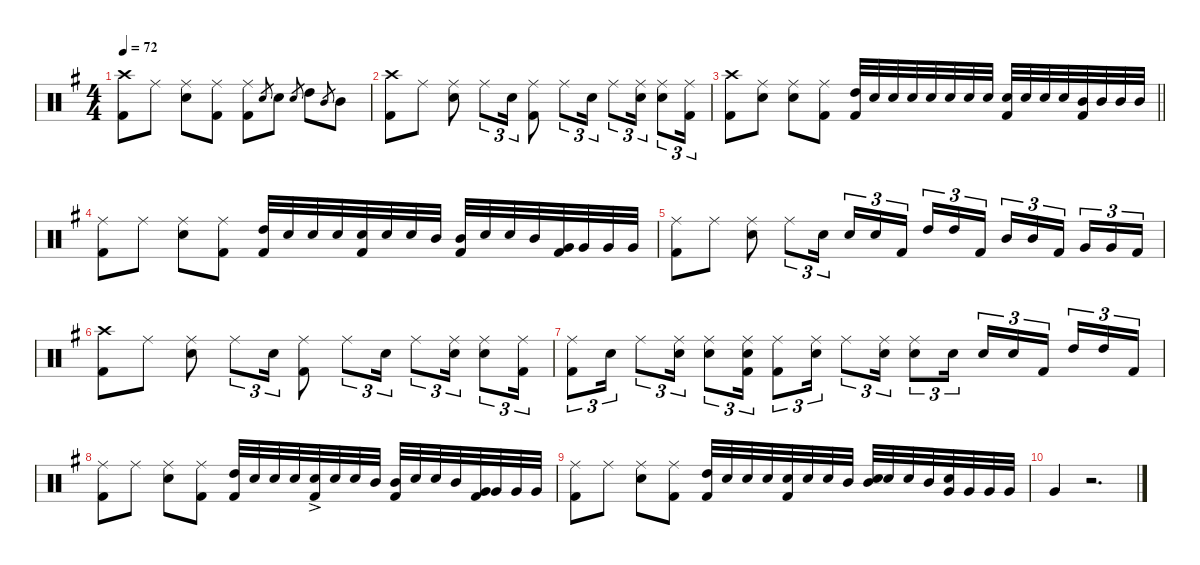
\defaultSystemsLayout 4
\hideDynamics
\bracketExtendMode nobrackets
\singleTrackTrackNamePolicy hidden
\multiTrackTrackNamePolicy hidden
\otherSystemsTrackNameOrientation horizontal
\track ("Drums" "drm.") {instrument percussion}
\staff {score}
\articulation defaults
\ts (4 4)
\tempo 72
\clef neutral
\ks g
("Crash high (hit)"{acc forcenatural} "Kick (hit) 2"{acc forcenatural}).8{dy f beam Down} "Ride (middle)"{acc forcenatural}.8{beam Down} ("Ride (middle)"{acc forcenatural} "Snare (hit) 2"{acc forcenatural}).8{beam Down} ("Ride (middle)"{acc forcenatural} "Kick (hit) 2"{acc forcenatural}).8{beam Down} ("Ride (middle)"{acc forcenatural} "Kick (hit) 2"{acc forcenatural}).8{beam Down} "Electric Snare (hit)"{acc forcenatural}.8{gr dy p beam Up} "Snare (hit) 2"{acc forcenatural}.8{dy f beam Down} "Electric Snare (hit)"{acc forcenatural}.8{gr dy p beam Up} "High Tom (hit)"{acc forcenatural}.8{dy f beam Down} "Mid Tom (hit)"{acc forcenatural}.8{gr dy p beam Up} "Mid Tom (hit)"{acc forcenatural}.8{dy f beam Down} |
("Crash high (hit)"{acc forcenatural} "Kick (hit) 2"{acc forcenatural}).8{beam Down} "Ride (middle)"{acc forcenatural}.8{beam Down} ("Ride (middle)"{acc forcenatural} "Snare (hit) 2"{acc forcenatural}).8{beam Down} "Ride (middle)"{acc forcenatural}.8{tu (3 2) beam Down} "Snare (hit) 2"{acc forcenatural}.16{tu (3 2) beam Down} ("Ride (middle)"{acc forcenatural} "Kick (hit) 2"{acc forcenatural}).8{beam Down} "Ride (middle)"{acc forcenatural}.8{tu (3 2) beam Down} "Snare (hit) 2"{acc forcenatural}.16{tu (3 2) beam Down} "Ride (middle)"{acc forcenatural}.8{tu (3 2) beam Down} ("Ride (middle)"{acc forcenatural} "Snare (hit) 2"{acc forcenatural}).16{tu (3 2) beam Down} ("Ride (middle)"{acc forcenatural} "Snare (hit) 2"{acc forcenatural}).8{tu (3 2) beam Down} ("Ride (middle)"{acc forcenatural} "Kick (hit) 2"{acc forcenatural}).16{tu (3 2) beam Down} |
\barLineRight lightlight
("Crash high (hit)"{acc forcenatural} "Kick (hit) 2"{acc forcenatural}).8{beam Down} ("Ride (middle)"{acc forcenatural} "Snare (hit) 2"{acc forcenatural}).8{beam Down} ("Ride (middle)"{acc forcenatural} "Snare (hit) 2"{acc forcenatural}).8{beam Down} ("Ride (middle)"{acc forcenatural} "Kick (hit) 2"{acc forcenatural}).8{beam Down} ("High Tom (hit)"{acc forcenatural} "Kick (hit) 2"{acc forcenatural}).32{beam Up} "Snare (hit) 2"{acc forcenatural}.32{beam Up} "Snare (hit) 2"{acc forcenatural}.32{beam Up} "Snare (hit) 2"{acc forcenatural}.32{beam Up} "Snare (hit) 2"{acc forcenatural}.32{beam Up} "Snare (hit) 2"{acc forcenatural}.32{beam Up} "Snare (hit) 2"{acc forcenatural}.32{beam Up} "Snare (hit) 2"{acc forcenatural}.32{beam Up} ("Snare (hit) 2"{acc forcenatural} "Kick (hit) 2"{acc forcenatural}).32{beam Up} "Snare (hit) 2"{acc forcenatural}.32{beam Up} "Snare (hit) 2"{acc forcenatural}.32{beam Up} "Snare (hit) 2"{acc forcenatural}.32{beam Up} ("Mid Tom (hit)"{acc forcenatural} "Kick (hit) 2"{acc forcenatural}).32{beam Up} "Mid Tom (hit)"{acc forcenatural}.32{beam Up} "Mid Tom (hit)"{acc forcenatural}.32{beam Up} "Mid Tom (hit)"{acc forcenatural}.32{beam Up} |
("Ride (middle)"{acc forcenatural} "Kick (hit) 2"{acc forcenatural}).8{beam Down} "Ride (middle)"{acc forcenatural}.8{beam Down} ("Ride (middle)"{acc forcenatural} "Snare (hit) 2"{acc forcenatural}).8{beam Down} ("Ride (middle)"{acc forcenatural} "Kick (hit) 2"{acc forcenatural}).8{beam Down} ("High Tom (hit)"{acc forcenatural} "Kick (hit) 2"{acc forcenatural}).32{beam Up} "Snare (hit) 2"{acc forcenatural}.32{beam Up} "Snare (hit) 2"{acc forcenatural}.32{beam Up} "Snare (hit) 2"{acc forcenatural}.32{beam Up} ("Snare (hit) 2"{acc forcenatural} "Kick (hit) 2"{acc forcenatural}).32{beam Up} "Snare (hit) 2"{acc forcenatural}.32{beam Up} "Snare (hit) 2"{acc forcenatural}.32{beam Up} "Mid Tom (hit)"{acc forcenatural}.32{beam Up} ("Mid Tom (hit)"{acc forcenatural} "Kick (hit) 2"{acc forcenatural}).32{beam Up} "Snare (hit) 2"{acc forcenatural}.32{beam Up} "Snare (hit) 2"{acc forcenatural}.32{beam Up} "Mid Tom (hit)"{acc forcenatural}.32{beam Up} ("Very Low Tom (hit)"{acc forcenatural} "Kick (hit) 2"{acc forcenatural}).32{beam Up} "Very Low Tom (hit)"{acc forcenatural}.32{beam Up} "Very Low Tom (hit)"{acc forcenatural}.32{beam Up} "Very Low Tom (hit)"{acc forcenatural}.32{beam Up} |
("Ride (middle)"{acc forcenatural} "Kick (hit) 2"{acc forcenatural}).8{beam Down} "Ride (middle)"{acc forcenatural}.8{beam Down} ("Ride (middle)"{acc forcenatural} "Snare (hit) 2"{acc forcenatural}).8{beam Down} "Ride (middle)"{acc forcenatural}.8{tu (3 2) beam Down} "Snare (hit) 2"{acc forcenatural}.16{tu (3 2) beam Down} "Snare (hit) 2"{acc forcenatural}.16{tu (3 2) beam Up} "Snare (hit) 2"{acc forcenatural}.16{tu (3 2) beam Up} "Kick (hit) 2"{acc forcenatural}.16{tu (3 2) beam Up} "High Tom (hit)"{acc forcenatural}.16{tu (3 2) beam Up} "High Tom (hit)"{acc forcenatural}.16{tu (3 2) beam Up} "Kick (hit) 2"{acc forcenatural}.16{tu (3 2) beam Up} "Mid Tom (hit)"{acc forcenatural}.16{tu (3 2) beam Up} "Mid Tom (hit)"{acc forcenatural}.16{tu (3 2) beam Up} "Kick (hit) 2"{acc forcenatural}.16{tu (3 2) beam Up} "Very Low Tom (hit)"{acc forcenatural}.16{tu (3 2) beam Up} "Very Low Tom (hit)"{acc forcenatural}.16{tu (3 2) beam Up} "Kick (hit) 2"{acc forcenatural}.16{tu (3 2) beam Up} |
("Crash high (hit)"{acc forcenatural} "Kick (hit) 2"{acc forcenatural}).8{beam Down} "Ride (middle)"{acc forcenatural}.8{beam Down} ("Ride (middle)"{acc forcenatural} "Snare (hit) 2"{acc forcenatural}).8{beam Down} "Ride (middle)"{acc forcenatural}.8{tu (3 2) beam Down} "Snare (hit) 2"{acc forcenatural}.16{tu (3 2) beam Down} ("Ride (middle)"{acc forcenatural} "Kick (hit) 2"{acc forcenatural}).8{beam Down} "Ride (middle)"{acc forcenatural}.8{tu (3 2) beam Down} "Snare (hit) 2"{acc forcenatural}.16{tu (3 2) beam Down} "Ride (middle)"{acc forcenatural}.8{tu (3 2) beam Down} ("Ride (middle)"{acc forcenatural} "Snare (hit) 2"{acc forcenatural}).16{tu (3 2) beam Down} ("Ride (middle)"{acc forcenatural} "Snare (hit) 2"{acc forcenatural}).8{tu (3 2) beam Down} ("Ride (middle)"{acc forcenatural} "Kick (hit) 2"{acc forcenatural}).16{tu (3 2) beam Down} |
("Ride (middle)"{acc forcenatural} "Kick (hit) 2"{acc forcenatural}).8{tu (3 2) beam Down} "Snare (hit) 2"{acc forcenatural}.16{tu (3 2) beam Down} "Ride (middle)"{acc forcenatural}.8{tu (3 2) beam Down} ("Ride (middle)"{acc forcenatural} "Snare (hit) 2"{acc forcenatural}).16{tu (3 2) beam Down} ("Ride (middle)"{acc forcenatural} "Snare (hit) 2"{acc forcenatural}).8{tu (3 2) beam Down} ("Ride (middle)"{acc forcenatural} "Snare (hit) 2"{acc forcenatural} "Kick (hit) 2"{acc forcenatural}).16{tu (3 2) beam Down} ("Ride (middle)"{acc forcenatural} "Kick (hit) 2"{acc forcenatural}).8{tu (3 2) beam Down} ("Ride (middle)"{acc forcenatural} "Snare (hit) 2"{acc forcenatural}).16{tu (3 2) beam Down} "Ride (middle)"{acc forcenatural}.8{tu (3 2) beam Down} ("Ride (middle)"{acc forcenatural} "Snare (hit) 2"{acc forcenatural}).16{tu (3 2) beam Down} ("Ride (middle)"{acc forcenatural} "Snare (hit) 2"{acc forcenatural}).8{tu (3 2) beam Down} "Snare (hit) 2"{acc forcenatural}.16{tu (3 2) beam Down} "Snare (hit) 2"{acc forcenatural}.16{tu (3 2) beam Up} "Snare (hit) 2"{acc forcenatural}.16{tu (3 2) beam Up} "Kick (hit) 2"{acc forcenatural}.16{tu (3 2) beam Up} "High Tom (hit)"{acc forcenatural}.16{tu (3 2) beam Up} "High Tom (hit)"{acc forcenatural}.16{tu (3 2) beam Up} "Kick (hit) 2"{acc forcenatural}.16{tu (3 2) beam Up} |
("Ride (middle)"{acc forcenatural} "Kick (hit) 2"{acc forcenatural}).8{beam Down} "Ride (middle)"{acc forcenatural}.8{beam Down} ("Ride (middle)"{acc forcenatural} "Snare (hit) 2"{acc forcenatural}).8{beam Down} ("Ride (middle)"{acc forcenatural} "Kick (hit) 2"{acc forcenatural}).8{beam Down} ("High Tom (hit)"{acc forcenatural} "Kick (hit) 2"{acc forcenatural}).32{beam Up} "Snare (hit) 2"{acc forcenatural}.32{beam Up} "Snare (hit) 2"{acc forcenatural}.32{beam Up} "Snare (hit) 2"{acc forcenatural}.32{beam Up} ("Snare (hit) 2"{ac acc forcenatural} "Kick (hit) 2"{acc forcenatural}).32{beam Up} "Snare (hit) 2"{acc forcenatural}.32{beam Up} "Snare (hit) 2"{acc forcenatural}.32{beam Up} "Mid Tom (hit)"{acc forcenatural}.32{beam Up} ("Mid Tom (hit)"{acc forcenatural} "Kick (hit) 2"{acc forcenatural}).32{beam Up} "Snare (hit) 2"{acc forcenatural}.32{beam Up} "Snare (hit) 2"{acc forcenatural}.32{beam Up} "Mid Tom (hit)"{acc forcenatural}.32{beam Up} ("Very Low Tom (hit)"{acc forcenatural} "Kick (hit) 2"{acc forcenatural}).32{beam Up} "Very Low Tom (hit)"{acc forcenatural}.32{beam Up} "Very Low Tom (hit)"{acc forcenatural}.32{beam Up} "Very Low Tom (hit)"{acc forcenatural}.32{beam Up} |
("Ride (middle)"{acc forcenatural} "Kick (hit) 2"{acc forcenatural}).8{beam Down} "Ride (middle)"{acc forcenatural}.8{beam Down} ("Ride (middle)"{acc forcenatural} "Snare (hit) 2"{acc forcenatural}).8{beam Down} ("Ride (middle)"{acc forcenatural} "Kick (hit) 2"{acc forcenatural}).8{beam Down} ("High Tom (hit)"{acc forcenatural} "Kick (hit) 2"{acc forcenatural}).32{beam Up} "Snare (hit) 2"{acc forcenatural}.32{beam Up} "Snare (hit) 2"{acc forcenatural}.32{beam Up} "Snare (hit) 2"{acc forcenatural}.32{beam Up} ("Snare (hit) 2"{acc forcenatural} "Kick (hit) 2"{acc forcenatural}).32{beam Up} "Snare (hit) 2"{acc forcenatural}.32{beam Up} "Snare (hit) 2"{acc forcenatural}.32{beam Up} "Mid Tom (hit)"{acc forcenatural}.32{beam Up} ("Mid Tom (hit)"{acc forcenatural} "Snare (hit) 2"{acc forcenatural}).32{beam Up} "Snare (hit) 2"{acc forcenatural}.32{beam Up} "Snare (hit) 2"{acc forcenatural}.32{beam Up} "Mid Tom (hit)"{acc forcenatural}.32{beam Up} ("Very Low Tom (hit)"{acc forcenatural} "Snare (hit) 2"{acc forcenatural}).32{beam Up} "Very Low Tom (hit)"{acc forcenatural}.32{beam Up} "Very Low Tom (hit)"{acc forcenatural}.32{beam Up} "Very Low Tom (hit)"{acc forcenatural}.32{beam Up} |
"Very Low Tom (hit)"{acc forcenatural}.4{beam Up} r.2{d beam Up}
